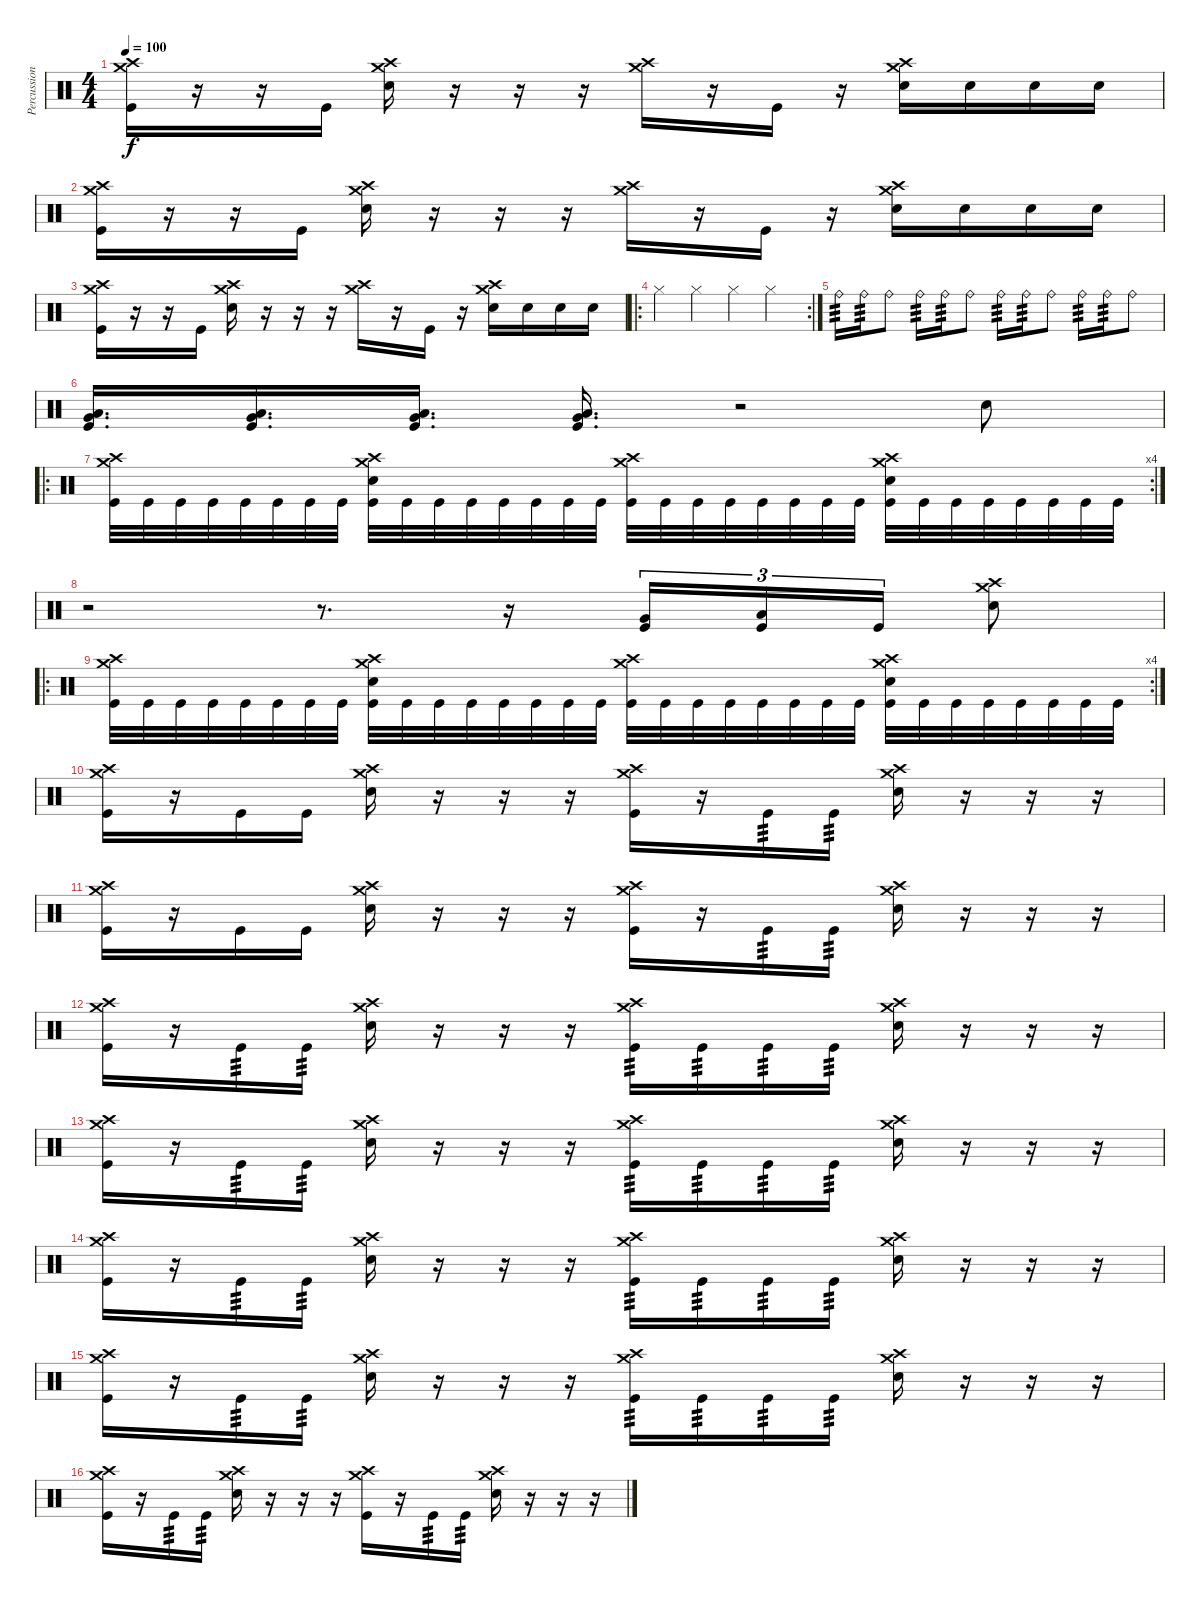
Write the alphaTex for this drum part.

\track ("Percussion" "Percussion") {instrument percussion}
\staff {score}
\articulation defaults
\ts (4 4)
\tempo 100
\clef neutral
\ks c
("Crash medium (hit)" "Crash high (hit)" "Kick (hit)").16{dy f} r.16 r.16 "Kick (hit)".16 ("Crash medium (hit)" "Crash high (hit)" "Snare (hit) 2").16 r.16 r.16 r.16 ("Crash medium (hit)" "Crash high (hit)").16 r.16 "Kick (hit)".16 r.16 ("Crash medium (hit)" "Crash high (hit)" "Snare (hit) 2").16 "Snare (hit) 2".16 "Snare (hit) 2".16 "Snare (hit) 2".16 |
("Crash medium (hit)" "Crash high (hit)" "Kick (hit)").16 r.16 r.16 "Kick (hit)".16 ("Crash medium (hit)" "Crash high (hit)" "Snare (hit) 2").16 r.16 r.16 r.16 ("Crash medium (hit)" "Crash high (hit)").16 r.16 "Kick (hit)".16 r.16 ("Crash medium (hit)" "Crash high (hit)" "Snare (hit) 2").16 "Snare (hit) 2".16 "Snare (hit) 2".16 "Snare (hit) 2".16 |
("Crash medium (hit)" "Crash high (hit)" "Kick (hit)").16 r.16 r.16 "Kick (hit)".16 ("Crash medium (hit)" "Crash high (hit)" "Snare (hit) 2").16 r.16 r.16 r.16 ("Crash medium (hit)" "Crash high (hit)").16 r.16 "Kick (hit)".16 r.16 ("Crash medium (hit)" "Crash high (hit)" "Snare (hit) 2").16 "Snare (hit) 2".16 "Snare (hit) 2".16 "Snare (hit) 2".16 |
\ro
\rc 2 "Hi-Hat (closed)".4{volume 13} "Hi-Hat (closed)".4 "Hi-Hat (closed)".4 "Hi-Hat (closed)".4
|
"Ride (bell)".16{tp 3} "Ride (bell)".16{tp 3} "Ride (bell)".8 "Ride (bell)".16{tp 3} "Ride (bell)".16{tp 3} "Ride (bell)".8 "Ride (bell)".16{tp 3} "Ride (bell)".16{tp 3} "Ride (bell)".8 "Ride (bell)".16{tp 3} "Ride (bell)".16{tp 3} "Ride (bell)".8 |
("Very Low Tom (hit)" "Low Floor Tom (hit)" "Kick (hit)").16{d} ("Very Low Tom (hit)" "Low Floor Tom (hit)" "Kick (hit)").16{d} ("Very Low Tom (hit)" "Low Floor Tom (hit)" "Kick (hit)").16{d} ("Very Low Tom (hit)" "Low Floor Tom (hit)" "Kick (hit)").16{d} r.2 "Snare (hit) 2".8{volume 16} |
\ro
\rc 4
("Crash medium (hit)" "Crash high (hit)" "Kick (hit)").32 "Kick (hit)".32 "Kick (hit)".32 "Kick (hit)".32 "Kick (hit)".32 "Kick (hit)".32 "Kick (hit)".32 "Kick (hit)".32 ("Crash medium (hit)" "Crash high (hit)" "Snare (hit) 2" "Kick (hit)").32 "Kick (hit)".32 "Kick (hit)".32 "Kick (hit)".32 "Kick (hit)".32 "Kick (hit)".32 "Kick (hit)".32 "Kick (hit)".32 ("Crash medium (hit)" "Crash high (hit)" "Kick (hit)").32 "Kick (hit)".32 "Kick (hit)".32 "Kick (hit)".32 "Kick (hit)".32 "Kick (hit)".32 "Kick (hit)".32 "Kick (hit)".32 ("Crash medium (hit)" "Crash high (hit)" "Snare (hit) 2" "Kick (hit)").32 "Kick (hit)".32 "Kick (hit)".32 "Kick (hit)".32 "Kick (hit)".32 "Kick (hit)".32 "Kick (hit)".32 "Kick (hit)".32 |
r.2 r.8{d} r.16 ("Very Low Tom (hit)" "Kick (hit)").16{tu (3 2) volume 13} ("Low Floor Tom (hit)" "Kick (hit)").16{tu (3 2)} "Kick (hit)".16{tu (3 2)} ("Crash medium (hit)" "Crash high (hit)" "Snare (hit) 2").8{volume 16} |
\ro
\rc 4
("Crash medium (hit)" "Crash high (hit)" "Kick (hit)").32 "Kick (hit)".32 "Kick (hit)".32 "Kick (hit)".32 "Kick (hit)".32 "Kick (hit)".32 "Kick (hit)".32 "Kick (hit)".32 ("Crash medium (hit)" "Crash high (hit)" "Snare (hit) 2" "Kick (hit)").32 "Kick (hit)".32 "Kick (hit)".32 "Kick (hit)".32 "Kick (hit)".32 "Kick (hit)".32 "Kick (hit)".32 "Kick (hit)".32 ("Crash medium (hit)" "Crash high (hit)" "Kick (hit)").32 "Kick (hit)".32 "Kick (hit)".32 "Kick (hit)".32 "Kick (hit)".32 "Kick (hit)".32 "Kick (hit)".32 "Kick (hit)".32 ("Crash medium (hit)" "Crash high (hit)" "Snare (hit) 2" "Kick (hit)").32 "Kick (hit)".32 "Kick (hit)".32 "Kick (hit)".32 "Kick (hit)".32 "Kick (hit)".32 "Kick (hit)".32 "Kick (hit)".32 |
("Crash medium (hit)" "Crash high (hit)" "Kick (hit)").16 r.16 "Kick (hit)".16 "Kick (hit)".16 ("Crash medium (hit)" "Crash high (hit)" "Snare (hit) 2").16 r.16 r.16 r.16 ("Crash medium (hit)" "Crash high (hit)" "Kick (hit)").16 r.16 "Kick (hit)".16{tp 3} "Kick (hit)".16{tp 3} ("Crash medium (hit)" "Crash high (hit)" "Snare (hit) 2").16 r.16 r.16 r.16 |
("Crash medium (hit)" "Crash high (hit)" "Kick (hit)").16 r.16 "Kick (hit)".16 "Kick (hit)".16 ("Crash medium (hit)" "Crash high (hit)" "Snare (hit) 2").16 r.16 r.16 r.16 ("Crash medium (hit)" "Crash high (hit)" "Kick (hit)").16 r.16 "Kick (hit)".16{tp 3} "Kick (hit)".16{tp 3} ("Crash medium (hit)" "Crash high (hit)" "Snare (hit) 2").16 r.16 r.16 r.16 |
("Crash medium (hit)" "Crash high (hit)" "Kick (hit)").16 r.16 "Kick (hit)".16{tp 3} "Kick (hit)".16{tp 3} ("Crash medium (hit)" "Crash high (hit)" "Snare (hit) 2").16 r.16 r.16 r.16 ("Crash medium (hit)" "Crash high (hit)" "Kick (hit)").16{tp 3} "Kick (hit)".16{tp 3} "Kick (hit)".16{tp 3} "Kick (hit)".16{tp 3} ("Crash medium (hit)" "Crash high (hit)" "Snare (hit) 2").16 r.16 r.16 r.16 |
("Crash medium (hit)" "Crash high (hit)" "Kick (hit)").16 r.16 "Kick (hit)".16{tp 3} "Kick (hit)".16{tp 3} ("Crash medium (hit)" "Crash high (hit)" "Snare (hit) 2").16 r.16 r.16 r.16 ("Crash medium (hit)" "Crash high (hit)" "Kick (hit)").16{tp 3} "Kick (hit)".16{tp 3} "Kick (hit)".16{tp 3} "Kick (hit)".16{tp 3} ("Crash medium (hit)" "Crash high (hit)" "Snare (hit) 2").16 r.16 r.16 r.16 |
("Crash medium (hit)" "Crash high (hit)" "Kick (hit)").16 r.16 "Kick (hit)".16{tp 3} "Kick (hit)".16{tp 3} ("Crash medium (hit)" "Crash high (hit)" "Snare (hit) 2").16 r.16 r.16 r.16 ("Crash medium (hit)" "Crash high (hit)" "Kick (hit)").16{tp 3} "Kick (hit)".16{tp 3} "Kick (hit)".16{tp 3} "Kick (hit)".16{tp 3} ("Crash medium (hit)" "Crash high (hit)" "Snare (hit) 2").16 r.16 r.16 r.16 |
("Crash medium (hit)" "Crash high (hit)" "Kick (hit)").16 r.16 "Kick (hit)".16{tp 3} "Kick (hit)".16{tp 3} ("Crash medium (hit)" "Crash high (hit)" "Snare (hit) 2").16 r.16 r.16 r.16 ("Crash medium (hit)" "Crash high (hit)" "Kick (hit)").16{tp 3} "Kick (hit)".16{tp 3} "Kick (hit)".16{tp 3} "Kick (hit)".16{tp 3} ("Crash medium (hit)" "Crash high (hit)" "Snare (hit) 2").16 r.16 r.16 r.16 |
("Crash medium (hit)" "Crash high (hit)" "Kick (hit)").16 r.16 "Kick (hit)".16{tp 3} "Kick (hit)".16{tp 3} ("Crash medium (hit)" "Crash high (hit)" "Snare (hit) 2").16 r.16 r.16 r.16 ("Crash medium (hit)" "Crash high (hit)" "Kick (hit)").16 r.16 "Kick (hit)".16{tp 3} "Kick (hit)".16{tp 3} ("Crash medium (hit)" "Crash high (hit)" "Snare (hit) 2").16 r.16 r.16 r.16
